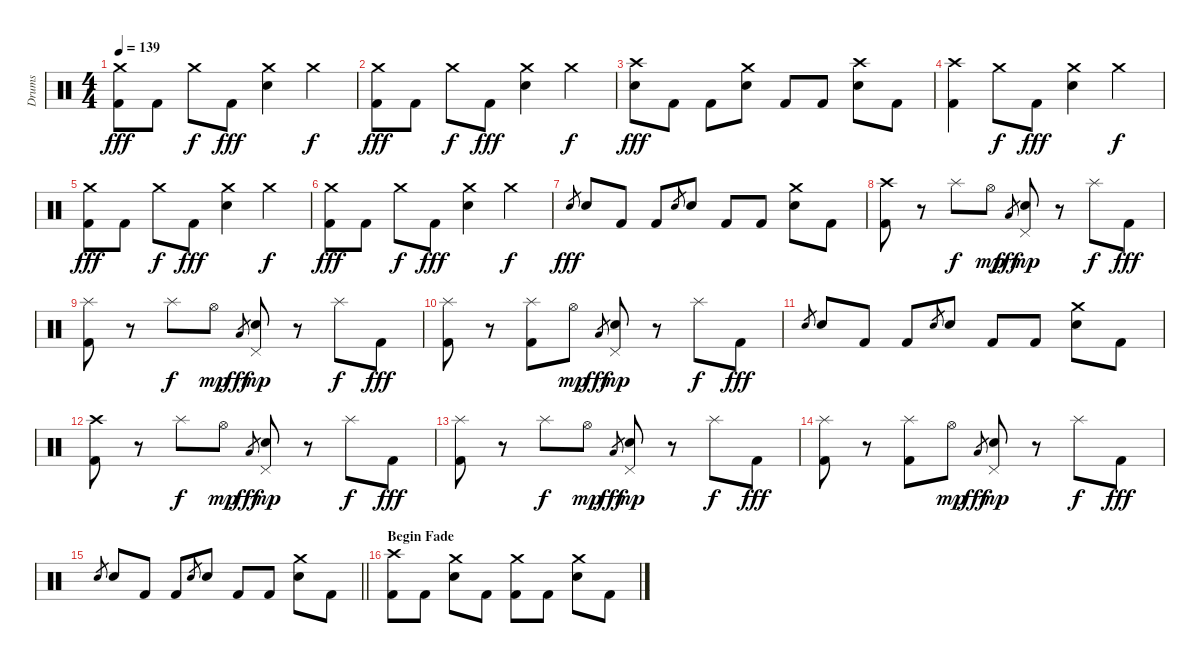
\track ("Drums" "Drums") {instrument percussion}
\staff {score}
\articulation defaults
\ts (4 4)
\tempo 139
\clef neutral
\ks c
("Kick (hit) 2" "Crash medium (hit)").8{dy fff} "Kick (hit) 2".8 "Crash medium (hit)".8{dy f} "Kick (hit) 2".8{dy fff} ("Electric Snare (hit)" "Crash medium (hit)").4 "Crash medium (hit)".4{dy f} |
("Kick (hit) 2" "Crash medium (hit)").8{dy fff} "Kick (hit) 2".8 "Crash medium (hit)".8{dy f} "Kick (hit) 2".8{dy fff} ("Electric Snare (hit)" "Crash medium (hit)").4 "Crash medium (hit)".4{dy f} |
("Electric Snare (hit)" "Crash high (hit)").8{dy fff} "Kick (hit) 2".8 "Kick (hit) 2".8 ("Electric Snare (hit)" "Crash medium (hit)").8 "Kick (hit) 2".8 "Kick (hit) 2".8 ("Electric Snare (hit)" "Crash high (hit)").8 "Kick (hit) 2".8 |
("Kick (hit) 2" "Crash high (hit)").4 "Crash medium (hit)".8{dy f} "Kick (hit) 2".8{dy fff} ("Electric Snare (hit)" "Crash medium (hit)").4 "Crash medium (hit)".4{dy f} |
("Kick (hit) 2" "Crash medium (hit)").8{dy fff} "Kick (hit) 2".8 "Crash medium (hit)".8{dy f} "Kick (hit) 2".8{dy fff} ("Electric Snare (hit)" "Crash medium (hit)").4 "Crash medium (hit)".4{dy f} |
("Kick (hit) 2" "Crash medium (hit)").8{dy fff} "Kick (hit) 2".8 "Crash medium (hit)".8{dy f} "Kick (hit) 2".8{dy fff} ("Electric Snare (hit)" "Crash medium (hit)").4 "Crash medium (hit)".4{dy f} |
"Electric Snare (hit)".8{gr dy fff} "Electric Snare (hit)".8 "Kick (hit) 2".8 "Kick (hit) 2".8 "Electric Snare (hit)".8{gr} "Electric Snare (hit)".8 "Kick (hit) 2".8 "Kick (hit) 2".8 ("Electric Snare (hit)" "Crash medium (hit)").8 "Kick (hit) 2".8 |
("Kick (hit) 2" "Crash high (hit)").8 r.8 "Splash (hit)".8{dy f} "Hi-Hat (open)".8{dy mp} "Low Floor Tom (hit)".8{gr dy fff} ("Electric Snare (hit)" "Pedal Hi-Hat (hit)").8{dy mp} r.8 "Splash (hit)".8{dy f} "Kick (hit) 2".8{dy fff} |
("Kick (hit) 2" "Splash (hit)").8 r.8 "Splash (hit)".8{dy f} "Hi-Hat (open)".8{dy mp} "Low Floor Tom (hit)".8{gr dy fff} ("Electric Snare (hit)" "Pedal Hi-Hat (hit)").8{dy mp} r.8 "Splash (hit)".8{dy f} "Kick (hit) 2".8{dy fff} |
("Kick (hit) 2" "Splash (hit)").8 r.8 ("Kick (hit) 2" "Splash (hit)").8 "Hi-Hat (open)".8{dy mp} "Low Floor Tom (hit)".8{gr dy fff} ("Electric Snare (hit)" "Pedal Hi-Hat (hit)").8{dy mp} r.8 "Splash (hit)".8{dy f} "Kick (hit) 2".8{dy fff} |
"Electric Snare (hit)".8{gr} "Electric Snare (hit)".8 "Kick (hit) 2".8 "Kick (hit) 2".8 "Electric Snare (hit)".8{gr} "Electric Snare (hit)".8 "Kick (hit) 2".8 "Kick (hit) 2".8 ("Electric Snare (hit)" "Crash medium (hit)").8 "Kick (hit) 2".8 |
("Kick (hit) 2" "Crash high (hit)").8 r.8 "Splash (hit)".8{dy f} "Hi-Hat (open)".8{dy mp} "Low Floor Tom (hit)".8{gr dy fff} ("Electric Snare (hit)" "Pedal Hi-Hat (hit)").8{dy mp} r.8 "Splash (hit)".8{dy f} "Kick (hit) 2".8{dy fff} |
("Kick (hit) 2" "Splash (hit)").8 r.8 "Splash (hit)".8{dy f} "Hi-Hat (open)".8{dy mp} "Low Floor Tom (hit)".8{gr dy fff} ("Electric Snare (hit)" "Pedal Hi-Hat (hit)").8{dy mp} r.8 "Splash (hit)".8{dy f} "Kick (hit) 2".8{dy fff} |
("Kick (hit) 2" "Splash (hit)").8 r.8 ("Kick (hit) 2" "Splash (hit)").8 "Hi-Hat (open)".8{dy mp} "Low Floor Tom (hit)".8{gr dy fff} ("Electric Snare (hit)" "Pedal Hi-Hat (hit)").8{dy mp} r.8 "Splash (hit)".8{dy f} "Kick (hit) 2".8{dy fff} |
\barLineRight lightlight "Electric Snare (hit)".8{gr} "Electric Snare (hit)".8 "Kick (hit) 2".8 "Kick (hit) 2".8 "Electric Snare (hit)".8{gr} "Electric Snare (hit)".8 "Kick (hit) 2".8 "Kick (hit) 2".8
("Electric Snare (hit)" "Crash medium (hit)").8 "Kick (hit) 2".8 |
\section ("" "Begin Fade")
("Kick (hit) 2" "Crash high (hit)").8{volume 8} "Kick (hit) 2".8 ("Electric Snare (hit)" "Crash medium (hit)").8 "Kick (hit) 2".8 ("Kick (hit) 2" "Crash medium (hit)").8 "Kick (hit) 2".8 ("Electric Snare (hit)" "Crash medium (hit)").8 "Kick (hit) 2".8
